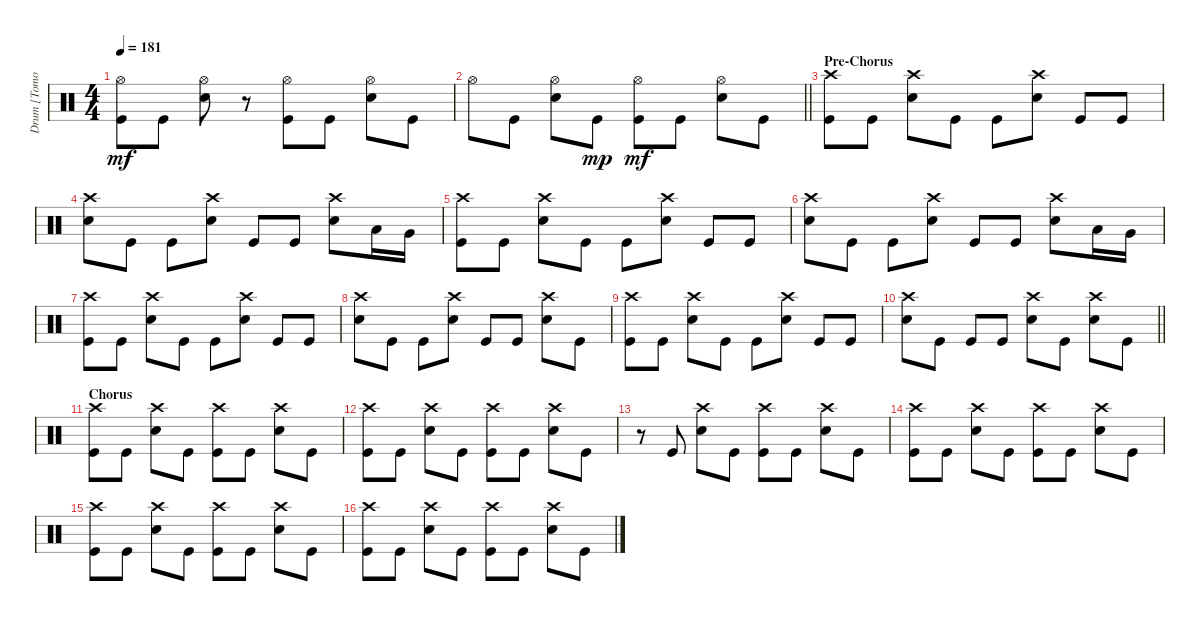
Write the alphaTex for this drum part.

\track ("Drum [Tomoya]" "Drum [Tomo") {instrument percussion}
\staff {score}
\articulation defaults
\ts (4 4)
\tempo 181
\clef neutral
\ks c
("Kick (hit)" "Hi-Hat (open)").8{dy mf} "Kick (hit)".8 ("Snare (hit) 2" "Hi-Hat (open)").8 r.8 ("Kick (hit)" "Hi-Hat (open)").8 "Kick (hit)".8 ("Snare (hit) 2" "Hi-Hat (open)").8 "Kick (hit)".8 |
\barLineRight lightlight "Hi-Hat (open)".8 "Kick (hit)".8
("Snare (hit) 2" "Hi-Hat (open)").8 "Kick (hit)".8{dy mp} ("Kick (hit)" "Hi-Hat (open)").8{dy mf} "Kick (hit)".8 ("Snare (hit) 2" "Hi-Hat (open)").8 "Kick (hit)".8 |
\section ("" "Pre-Chorus")
("Kick (hit)" "Crash high (hit)").8 "Kick (hit)".8 ("Snare (hit) 2" "Crash high (hit)").8 "Kick (hit)".8 "Kick (hit)".8 ("Snare (hit) 2" "Crash high (hit)").8 "Kick (hit)".8 "Kick (hit)".8 |
("Snare (hit) 2" "Crash high (hit)").8 "Kick (hit)".8 "Kick (hit)".8 ("Snare (hit) 2" "Crash high (hit)").8 "Kick (hit)".8 "Kick (hit)".8 ("Snare (hit) 2" "Crash high (hit)").8 "Low Tom (hit)".16 "Very Low Tom (hit)".16 |
("Kick (hit)" "Crash high (hit)").8 "Kick (hit)".8 ("Snare (hit) 2" "Crash high (hit)").8 "Kick (hit)".8 "Kick (hit)".8 ("Snare (hit) 2" "Crash high (hit)").8 "Kick (hit)".8 "Kick (hit)".8 |
("Snare (hit) 2" "Crash high (hit)").8 "Kick (hit)".8 "Kick (hit)".8 ("Snare (hit) 2" "Crash high (hit)").8 "Kick (hit)".8 "Kick (hit)".8 ("Snare (hit) 2" "Crash high (hit)").8 "Low Tom (hit)".16 "Very Low Tom (hit)".16 |
("Kick (hit)" "Crash high (hit)").8 "Kick (hit)".8 ("Snare (hit) 2" "Crash high (hit)").8 "Kick (hit)".8 "Kick (hit)".8 ("Snare (hit) 2" "Crash high (hit)").8 "Kick (hit)".8 "Kick (hit)".8 |
("Snare (hit) 2" "Crash high (hit)").8 "Kick (hit)".8 "Kick (hit)".8 ("Snare (hit) 2" "Crash high (hit)").8 "Kick (hit)".8 "Kick (hit)".8 ("Snare (hit) 2" "Crash high (hit)").8 "Kick (hit)".8 |
("Kick (hit)" "Crash high (hit)").8 "Kick (hit)".8 ("Snare (hit) 2" "Crash high (hit)").8 "Kick (hit)".8 "Kick (hit)".8 ("Snare (hit) 2" "Crash high (hit)").8 "Kick (hit)".8 "Kick (hit)".8 |
\barLineRight lightlight
("Snare (hit) 2" "Crash high (hit)").8 "Kick (hit)".8 "Kick (hit)".8 "Kick (hit)".8 ("Snare (hit) 2" "Crash high (hit)").8 "Kick (hit)".8 ("Snare (hit) 2" "Crash high (hit)").8 "Kick (hit)".8 |
\section ("" "Chorus")
("Kick (hit)" "Crash high (hit)").8 "Kick (hit)".8 ("Snare (hit) 2" "Crash high (hit)").8 "Kick (hit)".8 ("Kick (hit)" "Crash high (hit)").8 "Kick (hit)".8 ("Snare (hit) 2" "Crash high (hit)").8 "Kick (hit)".8 |
("Kick (hit)" "Crash high (hit)").8 "Kick (hit)".8 ("Snare (hit) 2" "Crash high (hit)").8 "Kick (hit)".8 ("Kick (hit)" "Crash high (hit)").8 "Kick (hit)".8 ("Snare (hit) 2" "Crash high (hit)").8 "Kick (hit)".8 |
r.8 "Kick (hit)".8 ("Snare (hit) 2" "Crash high (hit)").8 "Kick (hit)".8 ("Kick (hit)" "Crash high (hit)").8 "Kick (hit)".8 ("Snare (hit) 2" "Crash high (hit)").8 "Kick (hit)".8 |
("Kick (hit)" "Crash high (hit)").8 "Kick (hit)".8 ("Snare (hit) 2" "Crash high (hit)").8 "Kick (hit)".8 ("Kick (hit)" "Crash high (hit)").8 "Kick (hit)".8 ("Snare (hit) 2" "Crash high (hit)").8 "Kick (hit)".8 |
("Kick (hit)" "Crash high (hit)").8 "Kick (hit)".8 ("Snare (hit) 2" "Crash high (hit)").8 "Kick (hit)".8 ("Kick (hit)" "Crash high (hit)").8 "Kick (hit)".8 ("Snare (hit) 2" "Crash high (hit)").8 "Kick (hit)".8 |
("Kick (hit)" "Crash high (hit)").8 "Kick (hit)".8 ("Snare (hit) 2" "Crash high (hit)").8 "Kick (hit)".8 ("Kick (hit)" "Crash high (hit)").8 "Kick (hit)".8 ("Snare (hit) 2" "Crash high (hit)").8 "Kick (hit)".8
